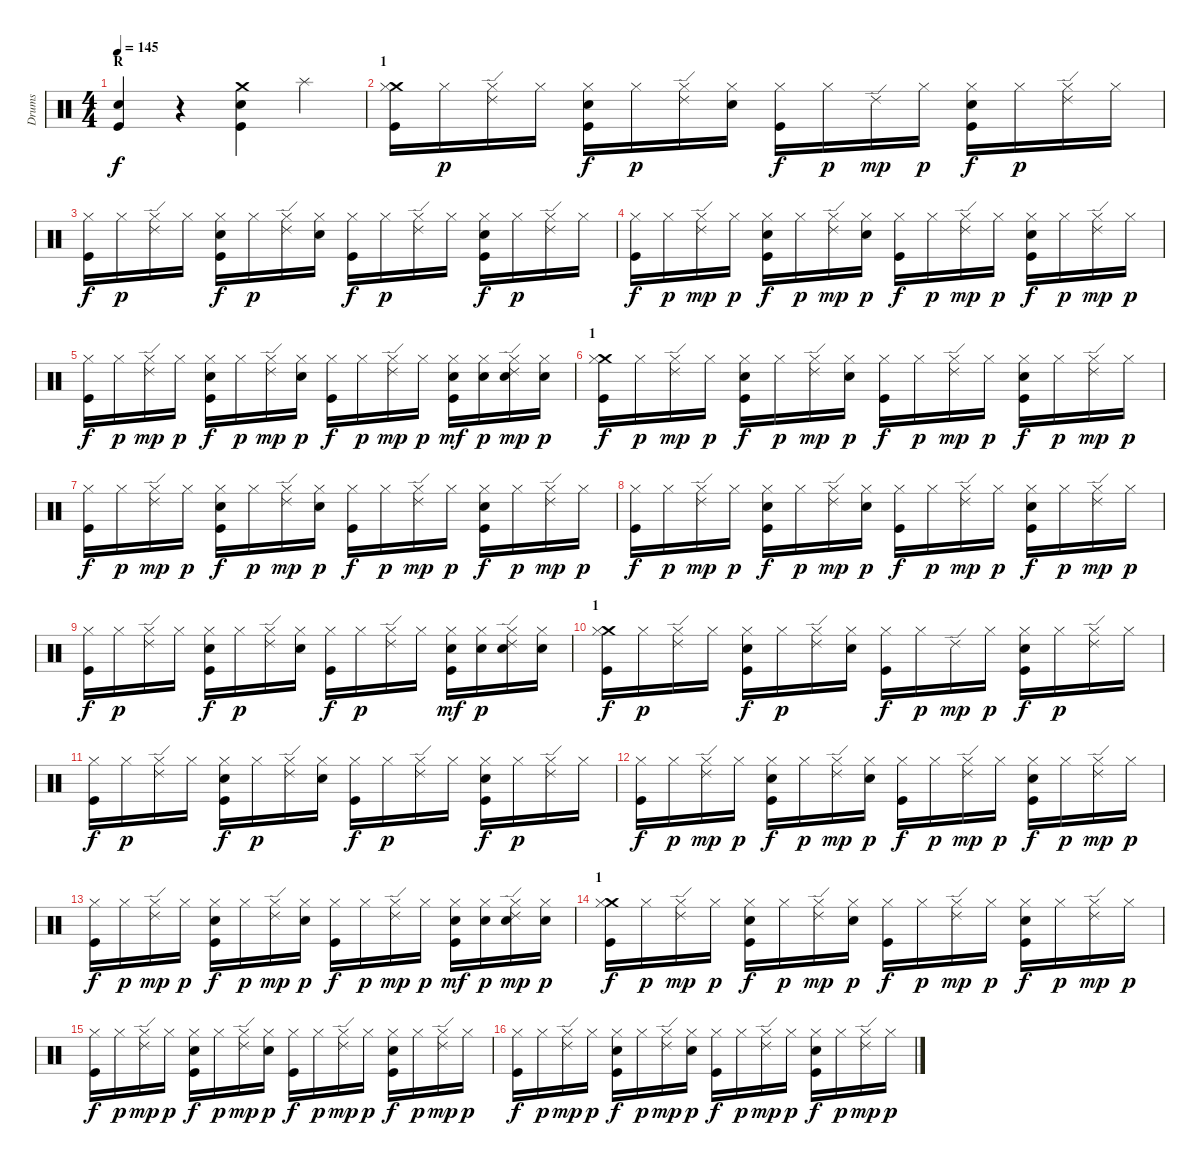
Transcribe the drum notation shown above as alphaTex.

\track ("Drums" "Drums") {instrument percussion}
\staff {score}
\articulation defaults
\ts (4 4)
\section ("" "R")
\tempo 145
\clef neutral
\ks c
("Electric Snare (hit)" "Kick (hit)").4{dy f} r.4 ("Crash medium (hit)" "Kick (hit)" "Electric Snare (hit)").4 "Splash (hit)".4 |
\section ("" "1")
("Crash medium (hit)" "Kick (hit)" "Hi-Hat (closed)").16 "Hi-Hat (closed)".16{dy p} ("Ride (edge) 2" "Hi-Hat (closed)").16 "Hi-Hat (closed)".16 ("Electric Snare (hit)" "Kick (hit)" "Hi-Hat (closed)").16{dy f} "Hi-Hat (closed)".16{dy p} ("Ride (edge) 2" "Hi-Hat (closed)").16 ("Electric Snare (hit)" "Hi-Hat (closed)").16 ("Kick (hit)" "Hi-Hat (closed)").16{dy f} "Hi-Hat (closed)".16{dy p} "Ride (edge) 2".16{dy mp} "Hi-Hat (closed)".16{dy p} ("Electric Snare (hit)" "Kick (hit)" "Hi-Hat (closed)").16{dy f} "Hi-Hat (closed)".16{dy p} ("Ride (edge) 2" "Hi-Hat (closed)").16 "Hi-Hat (closed)".16 |
("Kick (hit)" "Hi-Hat (closed)").16{dy f} "Hi-Hat (closed)".16{dy p} ("Ride (edge) 2" "Hi-Hat (closed)").16 "Hi-Hat (closed)".16 ("Electric Snare (hit)" "Kick (hit)" "Hi-Hat (closed)").16{dy f} "Hi-Hat (closed)".16{dy p} ("Ride (edge) 2" "Hi-Hat (closed)").16 ("Electric Snare (hit)" "Hi-Hat (closed)").16 ("Kick (hit)" "Hi-Hat (closed)").16{dy f} "Hi-Hat (closed)".16{dy p} ("Ride (edge) 2" "Hi-Hat (closed)").16 "Hi-Hat (closed)".16 ("Electric Snare (hit)" "Kick (hit)" "Hi-Hat (closed)").16{dy f} "Hi-Hat (closed)".16{dy p} ("Ride (edge) 2" "Hi-Hat (closed)").16 "Hi-Hat (closed)".16 |
("Kick (hit)" "Hi-Hat (closed)").16{dy f} "Hi-Hat (closed)".16{dy p} ("Hi-Hat (closed)" "Ride (edge) 2").16{dy mp} "Hi-Hat (closed)".16{dy p} ("Electric Snare (hit)" "Kick (hit)" "Hi-Hat (closed)").16{dy f} "Hi-Hat (closed)".16{dy p} ("Hi-Hat (closed)" "Ride (edge) 2").16{dy mp} ("Electric Snare (hit)" "Hi-Hat (closed)").16{dy p} ("Kick (hit)" "Hi-Hat (closed)").16{dy f} "Hi-Hat (closed)".16{dy p} ("Hi-Hat (closed)" "Ride (edge) 2").16{dy mp} "Hi-Hat (closed)".16{dy p} ("Electric Snare (hit)" "Kick (hit)" "Hi-Hat (closed)").16{dy f} "Hi-Hat (closed)".16{dy p} ("Hi-Hat (closed)" "Ride (edge) 2").16{dy mp} "Hi-Hat (closed)".16{dy p} |
("Kick (hit)" "Hi-Hat (closed)").16{dy f} "Hi-Hat (closed)".16{dy p} ("Hi-Hat (closed)" "Ride (edge) 2").16{dy mp} "Hi-Hat (closed)".16{dy p} ("Electric Snare (hit)" "Kick (hit)" "Hi-Hat (closed)").16{dy f} "Hi-Hat (closed)".16{dy p} ("Hi-Hat (closed)" "Ride (edge) 2").16{dy mp} ("Electric Snare (hit)" "Hi-Hat (closed)").16{dy p} ("Kick (hit)" "Hi-Hat (closed)").16{dy f} "Hi-Hat (closed)".16{dy p} ("Hi-Hat (closed)" "Ride (edge) 2").16{dy mp} "Hi-Hat (closed)".16{dy p} ("Electric Snare (hit)" "Kick (hit)" "Hi-Hat (closed)").16{dy mf} ("Electric Snare (hit)" "Hi-Hat (closed)").16{dy p} ("Electric Snare (hit)" "Hi-Hat (closed)" "Ride (edge) 2").16{dy mp} ("Electric Snare (hit)" "Hi-Hat (closed)").16{dy p} |
\section ("" "1")
("Crash medium (hit)" "Kick (hit)" "Hi-Hat (closed)").16{dy f} "Hi-Hat (closed)".16{dy p} ("Hi-Hat (closed)" "Ride (edge) 2").16{dy mp} "Hi-Hat (closed)".16{dy p} ("Electric Snare (hit)" "Kick (hit)" "Hi-Hat (closed)").16{dy f} "Hi-Hat (closed)".16{dy p} ("Hi-Hat (closed)" "Ride (edge) 2").16{dy mp} ("Electric Snare (hit)" "Hi-Hat (closed)").16{dy p} ("Kick (hit)" "Hi-Hat (closed)").16{dy f} "Hi-Hat (closed)".16{dy p} ("Hi-Hat (closed)" "Ride (edge) 2").16{dy mp} "Hi-Hat (closed)".16{dy p} ("Electric Snare (hit)" "Kick (hit)" "Hi-Hat (closed)").16{dy f} "Hi-Hat (closed)".16{dy p} ("Hi-Hat (closed)" "Ride (edge) 2").16{dy mp} "Hi-Hat (closed)".16{dy p} |
("Kick (hit)" "Hi-Hat (closed)").16{dy f} "Hi-Hat (closed)".16{dy p} ("Hi-Hat (closed)" "Ride (edge) 2").16{dy mp} "Hi-Hat (closed)".16{dy p} ("Electric Snare (hit)" "Kick (hit)" "Hi-Hat (closed)").16{dy f} "Hi-Hat (closed)".16{dy p} ("Hi-Hat (closed)" "Ride (edge) 2").16{dy mp} ("Electric Snare (hit)" "Hi-Hat (closed)").16{dy p} ("Kick (hit)" "Hi-Hat (closed)").16{dy f} "Hi-Hat (closed)".16{dy p} ("Hi-Hat (closed)" "Ride (edge) 2").16{dy mp} "Hi-Hat (closed)".16{dy p} ("Electric Snare (hit)" "Kick (hit)" "Hi-Hat (closed)").16{dy f} "Hi-Hat (closed)".16{dy p} ("Hi-Hat (closed)" "Ride (edge) 2").16{dy mp} "Hi-Hat (closed)".16{dy p} |
("Kick (hit)" "Hi-Hat (closed)").16{dy f} "Hi-Hat (closed)".16{dy p} ("Hi-Hat (closed)" "Ride (edge) 2").16{dy mp} "Hi-Hat (closed)".16{dy p} ("Electric Snare (hit)" "Kick (hit)" "Hi-Hat (closed)").16{dy f} "Hi-Hat (closed)".16{dy p} ("Hi-Hat (closed)" "Ride (edge) 2").16{dy mp} ("Electric Snare (hit)" "Hi-Hat (closed)").16{dy p} ("Kick (hit)" "Hi-Hat (closed)").16{dy f} "Hi-Hat (closed)".16{dy p} ("Hi-Hat (closed)" "Ride (edge) 2").16{dy mp} "Hi-Hat (closed)".16{dy p} ("Electric Snare (hit)" "Kick (hit)" "Hi-Hat (closed)").16{dy f} "Hi-Hat (closed)".16{dy p} ("Hi-Hat (closed)" "Ride (edge) 2").16{dy mp} "Hi-Hat (closed)".16{dy p} |
("Kick (hit)" "Hi-Hat (closed)").16{dy f} "Hi-Hat (closed)".16{dy p} ("Ride (edge) 2" "Hi-Hat (closed)").16 "Hi-Hat (closed)".16 ("Electric Snare (hit)" "Kick (hit)" "Hi-Hat (closed)").16{dy f} "Hi-Hat (closed)".16{dy p} ("Ride (edge) 2" "Hi-Hat (closed)").16 ("Electric Snare (hit)" "Hi-Hat (closed)").16 ("Kick (hit)" "Hi-Hat (closed)").16{dy f} "Hi-Hat (closed)".16{dy p} ("Ride (edge) 2" "Hi-Hat (closed)").16 "Hi-Hat (closed)".16 ("Electric Snare (hit)" "Kick (hit)" "Hi-Hat (closed)").16{dy mf} ("Electric Snare (hit)" "Hi-Hat (closed)").16{dy p} ("Electric Snare (hit)" "Ride (edge) 2" "Hi-Hat (closed)").16 ("Electric Snare (hit)" "Hi-Hat (closed)").16 |
\section ("" "1")
("Crash medium (hit)" "Kick (hit)" "Hi-Hat (closed)").16{dy f} "Hi-Hat (closed)".16{dy p} ("Ride (edge) 2" "Hi-Hat (closed)").16 "Hi-Hat (closed)".16 ("Electric Snare (hit)" "Kick (hit)" "Hi-Hat (closed)").16{dy f} "Hi-Hat (closed)".16{dy p} ("Ride (edge) 2" "Hi-Hat (closed)").16 ("Electric Snare (hit)" "Hi-Hat (closed)").16 ("Kick (hit)" "Hi-Hat (closed)").16{dy f} "Hi-Hat (closed)".16{dy p} "Ride (edge) 2".16{dy mp} "Hi-Hat (closed)".16{dy p} ("Electric Snare (hit)" "Kick (hit)" "Hi-Hat (closed)").16{dy f} "Hi-Hat (closed)".16{dy p} ("Ride (edge) 2" "Hi-Hat (closed)").16 "Hi-Hat (closed)".16 |
("Kick (hit)" "Hi-Hat (closed)").16{dy f} "Hi-Hat (closed)".16{dy p} ("Ride (edge) 2" "Hi-Hat (closed)").16 "Hi-Hat (closed)".16 ("Electric Snare (hit)" "Kick (hit)" "Hi-Hat (closed)").16{dy f} "Hi-Hat (closed)".16{dy p} ("Ride (edge) 2" "Hi-Hat (closed)").16 ("Electric Snare (hit)" "Hi-Hat (closed)").16 ("Kick (hit)" "Hi-Hat (closed)").16{dy f} "Hi-Hat (closed)".16{dy p} ("Ride (edge) 2" "Hi-Hat (closed)").16 "Hi-Hat (closed)".16 ("Electric Snare (hit)" "Kick (hit)" "Hi-Hat (closed)").16{dy f} "Hi-Hat (closed)".16{dy p} ("Ride (edge) 2" "Hi-Hat (closed)").16 "Hi-Hat (closed)".16 |
("Kick (hit)" "Hi-Hat (closed)").16{dy f} "Hi-Hat (closed)".16{dy p} ("Hi-Hat (closed)" "Ride (edge) 2").16{dy mp} "Hi-Hat (closed)".16{dy p} ("Electric Snare (hit)" "Kick (hit)" "Hi-Hat (closed)").16{dy f} "Hi-Hat (closed)".16{dy p} ("Hi-Hat (closed)" "Ride (edge) 2").16{dy mp} ("Electric Snare (hit)" "Hi-Hat (closed)").16{dy p} ("Kick (hit)" "Hi-Hat (closed)").16{dy f} "Hi-Hat (closed)".16{dy p} ("Hi-Hat (closed)" "Ride (edge) 2").16{dy mp} "Hi-Hat (closed)".16{dy p} ("Electric Snare (hit)" "Kick (hit)" "Hi-Hat (closed)").16{dy f} "Hi-Hat (closed)".16{dy p} ("Hi-Hat (closed)" "Ride (edge) 2").16{dy mp} "Hi-Hat (closed)".16{dy p} |
("Kick (hit)" "Hi-Hat (closed)").16{dy f} "Hi-Hat (closed)".16{dy p} ("Hi-Hat (closed)" "Ride (edge) 2").16{dy mp} "Hi-Hat (closed)".16{dy p} ("Electric Snare (hit)" "Kick (hit)" "Hi-Hat (closed)").16{dy f} "Hi-Hat (closed)".16{dy p} ("Hi-Hat (closed)" "Ride (edge) 2").16{dy mp} ("Electric Snare (hit)" "Hi-Hat (closed)").16{dy p} ("Kick (hit)" "Hi-Hat (closed)").16{dy f} "Hi-Hat (closed)".16{dy p} ("Hi-Hat (closed)" "Ride (edge) 2").16{dy mp} "Hi-Hat (closed)".16{dy p} ("Electric Snare (hit)" "Kick (hit)" "Hi-Hat (closed)").16{dy mf} ("Electric Snare (hit)" "Hi-Hat (closed)").16{dy p} ("Electric Snare (hit)" "Hi-Hat (closed)" "Ride (edge) 2").16{dy mp} ("Electric Snare (hit)" "Hi-Hat (closed)").16{dy p} |
\section ("" "1")
("Crash medium (hit)" "Kick (hit)" "Hi-Hat (closed)").16{dy f} "Hi-Hat (closed)".16{dy p} ("Hi-Hat (closed)" "Ride (edge) 2").16{dy mp} "Hi-Hat (closed)".16{dy p} ("Electric Snare (hit)" "Kick (hit)" "Hi-Hat (closed)").16{dy f} "Hi-Hat (closed)".16{dy p} ("Hi-Hat (closed)" "Ride (edge) 2").16{dy mp} ("Electric Snare (hit)" "Hi-Hat (closed)").16{dy p} ("Kick (hit)" "Hi-Hat (closed)").16{dy f} "Hi-Hat (closed)".16{dy p} ("Hi-Hat (closed)" "Ride (edge) 2").16{dy mp} "Hi-Hat (closed)".16{dy p} ("Electric Snare (hit)" "Kick (hit)" "Hi-Hat (closed)").16{dy f} "Hi-Hat (closed)".16{dy p} ("Hi-Hat (closed)" "Ride (edge) 2").16{dy mp} "Hi-Hat (closed)".16{dy p} |
("Kick (hit)" "Hi-Hat (closed)").16{dy f} "Hi-Hat (closed)".16{dy p} ("Hi-Hat (closed)" "Ride (edge) 2").16{dy mp} "Hi-Hat (closed)".16{dy p} ("Electric Snare (hit)" "Kick (hit)" "Hi-Hat (closed)").16{dy f} "Hi-Hat (closed)".16{dy p} ("Hi-Hat (closed)" "Ride (edge) 2").16{dy mp} ("Electric Snare (hit)" "Hi-Hat (closed)").16{dy p} ("Kick (hit)" "Hi-Hat (closed)").16{dy f} "Hi-Hat (closed)".16{dy p} ("Hi-Hat (closed)" "Ride (edge) 2").16{dy mp} "Hi-Hat (closed)".16{dy p} ("Electric Snare (hit)" "Kick (hit)" "Hi-Hat (closed)").16{dy f} "Hi-Hat (closed)".16{dy p} ("Hi-Hat (closed)" "Ride (edge) 2").16{dy mp} "Hi-Hat (closed)".16{dy p} |
("Kick (hit)" "Hi-Hat (closed)").16{dy f} "Hi-Hat (closed)".16{dy p} ("Hi-Hat (closed)" "Ride (edge) 2").16{dy mp} "Hi-Hat (closed)".16{dy p} ("Electric Snare (hit)" "Kick (hit)" "Hi-Hat (closed)").16{dy f} "Hi-Hat (closed)".16{dy p} ("Hi-Hat (closed)" "Ride (edge) 2").16{dy mp} ("Electric Snare (hit)" "Hi-Hat (closed)").16{dy p} ("Kick (hit)" "Hi-Hat (closed)").16{dy f} "Hi-Hat (closed)".16{dy p} ("Hi-Hat (closed)" "Ride (edge) 2").16{dy mp} "Hi-Hat (closed)".16{dy p} ("Electric Snare (hit)" "Kick (hit)" "Hi-Hat (closed)").16{dy f} "Hi-Hat (closed)".16{dy p} ("Hi-Hat (closed)" "Ride (edge) 2").16{dy mp} "Hi-Hat (closed)".16{dy p}
